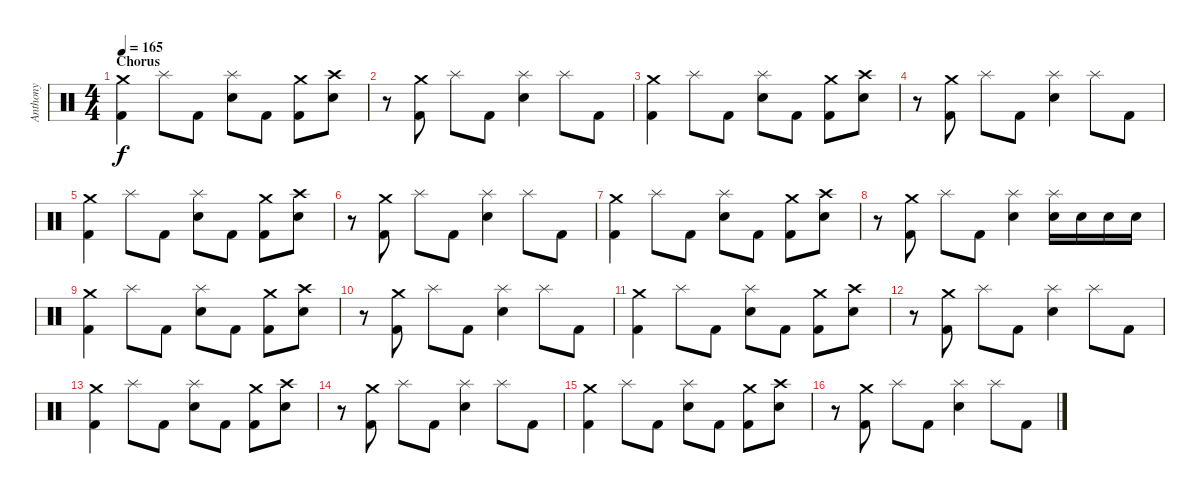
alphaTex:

\track ("Anthony" "Anthony") {instrument percussion}
\staff {score}
\articulation defaults
\ts (4 4)
\section ("" "Chorus")
\tempo 165
\clef neutral
\ks c
("Crash medium (hit)" "Kick (hit) 2").4{dy f} "Splash (hit)".8 "Kick (hit) 2".8 ("Splash (hit)" "Electric Snare (hit)").8 "Kick (hit) 2".8 ("Crash medium (hit)" "Kick (hit) 2").8 ("Crash high (hit)" "Electric Snare (hit)").8 |
r.8 ("Crash medium (hit)" "Kick (hit) 2").8 "Splash (hit)".8 "Kick (hit) 2".8 ("Splash (hit)" "Electric Snare (hit)").4 "Splash (hit)".8 "Kick (hit) 2".8 |
("Crash medium (hit)" "Kick (hit) 2").4 "Splash (hit)".8 "Kick (hit) 2".8 ("Splash (hit)" "Electric Snare (hit)").8 "Kick (hit) 2".8 ("Crash medium (hit)" "Kick (hit) 2").8 ("Crash high (hit)" "Electric Snare (hit)").8 |
r.8 ("Crash medium (hit)" "Kick (hit) 2").8 "Splash (hit)".8 "Kick (hit) 2".8 ("Splash (hit)" "Electric Snare (hit)").4 "Splash (hit)".8 "Kick (hit) 2".8 |
("Crash medium (hit)" "Kick (hit) 2").4 "Splash (hit)".8 "Kick (hit) 2".8 ("Splash (hit)" "Electric Snare (hit)").8 "Kick (hit) 2".8 ("Crash medium (hit)" "Kick (hit) 2").8 ("Crash high (hit)" "Electric Snare (hit)").8 |
r.8 ("Crash medium (hit)" "Kick (hit) 2").8 "Splash (hit)".8 "Kick (hit) 2".8 ("Splash (hit)" "Electric Snare (hit)").4 "Splash (hit)".8 "Kick (hit) 2".8 |
("Crash medium (hit)" "Kick (hit) 2").4 "Splash (hit)".8 "Kick (hit) 2".8 ("Splash (hit)" "Electric Snare (hit)").8 "Kick (hit) 2".8 ("Crash medium (hit)" "Kick (hit) 2").8 ("Crash high (hit)" "Electric Snare (hit)").8 |
r.8 ("Crash medium (hit)" "Kick (hit) 2").8 "Splash (hit)".8 "Kick (hit) 2".8 ("Splash (hit)" "Electric Snare (hit)").4 ("Splash (hit)" "Electric Snare (hit)").16 "Electric Snare (hit)".16 "Electric Snare (hit)".16 "Electric Snare (hit)".16 |
("Crash medium (hit)" "Kick (hit) 2").4 "Splash (hit)".8 "Kick (hit) 2".8 ("Splash (hit)" "Electric Snare (hit)").8 "Kick (hit) 2".8 ("Crash medium (hit)" "Kick (hit) 2").8 ("Crash high (hit)" "Electric Snare (hit)").8 |
r.8 ("Crash medium (hit)" "Kick (hit) 2").8 "Splash (hit)".8 "Kick (hit) 2".8 ("Splash (hit)" "Electric Snare (hit)").4 "Splash (hit)".8 "Kick (hit) 2".8 |
("Crash medium (hit)" "Kick (hit) 2").4 "Splash (hit)".8 "Kick (hit) 2".8 ("Splash (hit)" "Electric Snare (hit)").8 "Kick (hit) 2".8 ("Crash medium (hit)" "Kick (hit) 2").8 ("Crash high (hit)" "Electric Snare (hit)").8 |
r.8 ("Crash medium (hit)" "Kick (hit) 2").8 "Splash (hit)".8 "Kick (hit) 2".8 ("Splash (hit)" "Electric Snare (hit)").4 "Splash (hit)".8 "Kick (hit) 2".8 |
("Crash medium (hit)" "Kick (hit) 2").4 "Splash (hit)".8 "Kick (hit) 2".8 ("Splash (hit)" "Electric Snare (hit)").8 "Kick (hit) 2".8 ("Crash medium (hit)" "Kick (hit) 2").8 ("Crash high (hit)" "Electric Snare (hit)").8 |
r.8 ("Crash medium (hit)" "Kick (hit) 2").8 "Splash (hit)".8 "Kick (hit) 2".8 ("Splash (hit)" "Electric Snare (hit)").4 "Splash (hit)".8 "Kick (hit) 2".8 |
("Crash medium (hit)" "Kick (hit) 2").4 "Splash (hit)".8 "Kick (hit) 2".8 ("Splash (hit)" "Electric Snare (hit)").8 "Kick (hit) 2".8 ("Crash medium (hit)" "Kick (hit) 2").8 ("Crash high (hit)" "Electric Snare (hit)").8 |
r.8 ("Crash medium (hit)" "Kick (hit) 2").8 "Splash (hit)".8 "Kick (hit) 2".8 ("Splash (hit)" "Electric Snare (hit)").4 "Splash (hit)".8 "Kick (hit) 2".8
